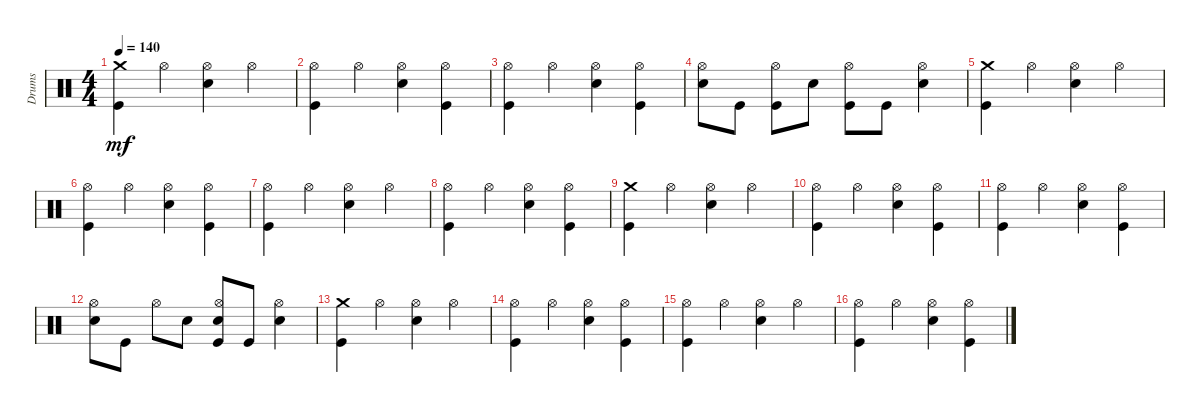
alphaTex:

\track ("Drums" "Drums") {instrument percussion}
\staff {score}
\articulation defaults
\ts (4 4)
\tempo 140
\clef neutral
\ks c
("Crash medium (hit)" "Kick (hit)").4{dy mf} "Hi-Hat (open)".4 ("Hi-Hat (open)" "Snare (hit) 2").4 "Hi-Hat (open)".4 |
("Kick (hit)" "Hi-Hat (open)").4 "Hi-Hat (open)".4 ("Hi-Hat (open)" "Snare (hit) 2").4 ("Hi-Hat (open)" "Kick (hit)").4 |
("Hi-Hat (open)" "Kick (hit)").4 "Hi-Hat (open)".4 ("Hi-Hat (open)" "Snare (hit) 2").4 ("Hi-Hat (open)" "Kick (hit)").4 |
("Snare (hit) 2" "Hi-Hat (open)").8 "Kick (hit)".8 ("Kick (hit)" "Hi-Hat (open)").8 "Snare (hit) 2".8 ("Kick (hit)" "Hi-Hat (open)").8 "Kick (hit)".8 ("Snare (hit) 2" "Hi-Hat (open)").4 |
("Crash medium (hit)" "Kick (hit)").4 "Hi-Hat (open)".4 ("Hi-Hat (open)" "Snare (hit) 2").4 "Hi-Hat (open)".4 |
("Kick (hit)" "Hi-Hat (open)").4 "Hi-Hat (open)".4 ("Hi-Hat (open)" "Snare (hit) 2").4 ("Hi-Hat (open)" "Kick (hit)").4 |
("Hi-Hat (open)" "Kick (hit)").4 "Hi-Hat (open)".4 ("Hi-Hat (open)" "Snare (hit) 2").4 "Hi-Hat (open)".4 |
("Hi-Hat (open)" "Kick (hit)").4 "Hi-Hat (open)".4 ("Hi-Hat (open)" "Snare (hit) 2").4 ("Hi-Hat (open)" "Kick (hit)").4 |
("Crash medium (hit)" "Kick (hit)").4 "Hi-Hat (open)".4 ("Hi-Hat (open)" "Snare (hit) 2").4 "Hi-Hat (open)".4 |
("Kick (hit)" "Hi-Hat (open)").4 "Hi-Hat (open)".4 ("Hi-Hat (open)" "Snare (hit) 2").4 ("Hi-Hat (open)" "Kick (hit)").4 |
("Hi-Hat (open)" "Kick (hit)").4 "Hi-Hat (open)".4 ("Hi-Hat (open)" "Snare (hit) 2").4 ("Hi-Hat (open)" "Kick (hit)").4 |
("Snare (hit) 2" "Hi-Hat (open)").8 "Kick (hit)".8 "Hi-Hat (open)".8 "Snare (hit) 2".8 ("Kick (hit)" "Hi-Hat (open)" "Snare (hit) 2").8 "Kick (hit)".8 ("Snare (hit) 2" "Hi-Hat (open)").4 |
("Crash medium (hit)" "Kick (hit)").4 "Hi-Hat (open)".4 ("Hi-Hat (open)" "Snare (hit) 2").4 "Hi-Hat (open)".4 |
("Kick (hit)" "Hi-Hat (open)").4 "Hi-Hat (open)".4 ("Hi-Hat (open)" "Snare (hit) 2").4 ("Hi-Hat (open)" "Kick (hit)").4 |
("Hi-Hat (open)" "Kick (hit)").4 "Hi-Hat (open)".4 ("Hi-Hat (open)" "Snare (hit) 2").4 "Hi-Hat (open)".4 |
("Hi-Hat (open)" "Kick (hit)").4 "Hi-Hat (open)".4 ("Hi-Hat (open)" "Snare (hit) 2").4 ("Hi-Hat (open)" "Kick (hit)").4
